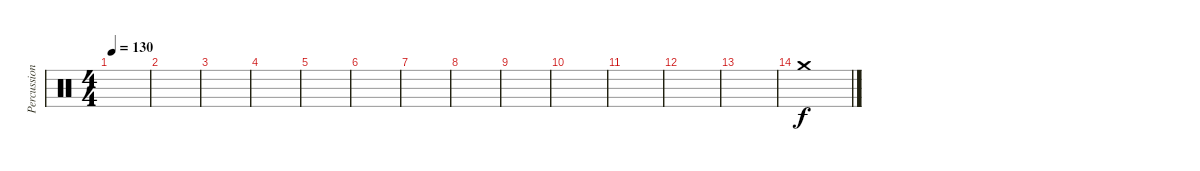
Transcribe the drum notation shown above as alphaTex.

\track ("Percussion" "Percussion") {instrument percussion}
\staff {score}
\articulation defaults
\ts (4 4)
\tempo 130
\clef neutral
\ks c
|
|
|
|
|
|
|
|
|
|
|
|
|
"Crash medium (hit)".1
